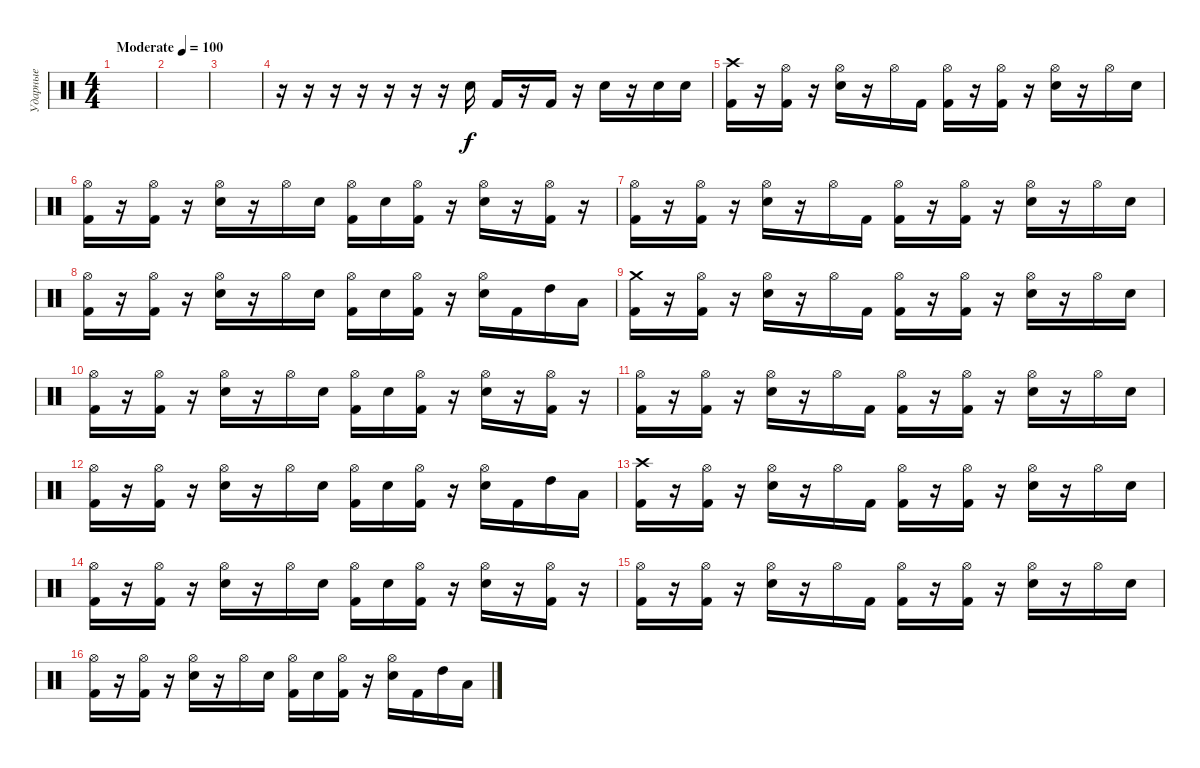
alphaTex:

\track ("Ударные" "Ударные") {instrument percussion}
\staff {score}
\articulation defaults
\ts (4 4)
\tempo (100 "Moderate")
\clef neutral
\ks c
|
|
|
r.16 r.16 r.16 r.16 r.16 r.16 r.16 "Snare (hit) 2".16 "Kick (hit) 2".16 r.16 "Kick (hit) 2".16 r.16 "Snare (hit) 2".16 r.16 "Snare (hit) 2".16 "Snare (hit) 2".16 |
("Crash high (hit)" "Kick (hit) 2").16 r.16 ("Hi-Hat (open)" "Kick (hit) 2").16 r.16 ("Hi-Hat (open)" "Snare (hit) 2").16 r.16 "Hi-Hat (open)".16 "Kick (hit) 2".16 ("Hi-Hat (open)" "Kick (hit) 2").16 r.16 ("Hi-Hat (open)" "Kick (hit) 2").16 r.16 ("Hi-Hat (open)" "Snare (hit) 2").16 r.16 "Hi-Hat (open)".16 "Snare (hit) 2".16 |
("Hi-Hat (open)" "Kick (hit) 2").16 r.16 ("Hi-Hat (open)" "Kick (hit) 2").16 r.16 ("Hi-Hat (open)" "Snare (hit) 2").16 r.16 "Hi-Hat (open)".16 "Snare (hit) 2".16 ("Hi-Hat (open)" "Kick (hit) 2").16 "Snare (hit) 2".16 ("Hi-Hat (open)" "Kick (hit) 2").16 r.16 ("Hi-Hat (open)" "Snare (hit) 2").16 r.16 ("Hi-Hat (open)" "Kick (hit) 2").16 r.16 |
("Hi-Hat (open)" "Kick (hit) 2").16 r.16 ("Hi-Hat (open)" "Kick (hit) 2").16 r.16 ("Hi-Hat (open)" "Snare (hit) 2").16 r.16 "Hi-Hat (open)".16 "Kick (hit) 2".16 ("Hi-Hat (open)" "Kick (hit) 2").16 r.16 ("Hi-Hat (open)" "Kick (hit) 2").16 r.16 ("Hi-Hat (open)" "Snare (hit) 2").16 r.16 "Hi-Hat (open)".16 "Snare (hit) 2".16 |
("Hi-Hat (open)" "Kick (hit) 2").16 r.16 ("Hi-Hat (open)" "Kick (hit) 2").16 r.16 ("Hi-Hat (open)" "Snare (hit) 2").16 r.16 "Hi-Hat (open)".16 "Snare (hit) 2".16 ("Hi-Hat (open)" "Kick (hit) 2").16 "Snare (hit) 2".16 ("Hi-Hat (open)" "Kick (hit) 2").16 r.16 ("Hi-Hat (open)" "Snare (hit) 2").16 "Kick (hit) 2".16 "High Tom (hit)".16 "Low Tom (hit)".16 |
("Crash medium (hit)" "Kick (hit) 2").16 r.16 ("Hi-Hat (open)" "Kick (hit) 2").16 r.16 ("Hi-Hat (open)" "Snare (hit) 2").16 r.16 "Hi-Hat (open)".16 "Kick (hit) 2".16 ("Hi-Hat (open)" "Kick (hit) 2").16 r.16 ("Hi-Hat (open)" "Kick (hit) 2").16 r.16 ("Hi-Hat (open)" "Snare (hit) 2").16 r.16 "Hi-Hat (open)".16 "Snare (hit) 2".16 |
("Hi-Hat (open)" "Kick (hit) 2").16 r.16 ("Hi-Hat (open)" "Kick (hit) 2").16 r.16 ("Hi-Hat (open)" "Snare (hit) 2").16 r.16 "Hi-Hat (open)".16 "Snare (hit) 2".16 ("Hi-Hat (open)" "Kick (hit) 2").16 "Snare (hit) 2".16 ("Hi-Hat (open)" "Kick (hit) 2").16 r.16 ("Hi-Hat (open)" "Snare (hit) 2").16 r.16 ("Hi-Hat (open)" "Kick (hit) 2").16 r.16 |
("Hi-Hat (open)" "Kick (hit) 2").16 r.16 ("Hi-Hat (open)" "Kick (hit) 2").16 r.16 ("Hi-Hat (open)" "Snare (hit) 2").16 r.16 "Hi-Hat (open)".16 "Kick (hit) 2".16 ("Hi-Hat (open)" "Kick (hit) 2").16 r.16 ("Hi-Hat (open)" "Kick (hit) 2").16 r.16 ("Hi-Hat (open)" "Snare (hit) 2").16 r.16 "Hi-Hat (open)".16 "Snare (hit) 2".16 |
("Hi-Hat (open)" "Kick (hit) 2").16 r.16 ("Hi-Hat (open)" "Kick (hit) 2").16 r.16 ("Hi-Hat (open)" "Snare (hit) 2").16 r.16 "Hi-Hat (open)".16 "Snare (hit) 2".16 ("Hi-Hat (open)" "Kick (hit) 2").16 "Snare (hit) 2".16 ("Hi-Hat (open)" "Kick (hit) 2").16 r.16 ("Hi-Hat (open)" "Snare (hit) 2").16 "Kick (hit) 2".16 "High Tom (hit)".16 "Low Tom (hit)".16 |
("Crash high (hit)" "Kick (hit) 2").16 r.16 ("Hi-Hat (open)" "Kick (hit) 2").16 r.16 ("Hi-Hat (open)" "Snare (hit) 2").16 r.16 "Hi-Hat (open)".16 "Kick (hit) 2".16 ("Hi-Hat (open)" "Kick (hit) 2").16 r.16 ("Hi-Hat (open)" "Kick (hit) 2").16 r.16 ("Hi-Hat (open)" "Snare (hit) 2").16 r.16 "Hi-Hat (open)".16 "Snare (hit) 2".16 |
("Hi-Hat (open)" "Kick (hit) 2").16 r.16 ("Hi-Hat (open)" "Kick (hit) 2").16 r.16 ("Hi-Hat (open)" "Snare (hit) 2").16 r.16 "Hi-Hat (open)".16 "Snare (hit) 2".16 ("Hi-Hat (open)" "Kick (hit) 2").16 "Snare (hit) 2".16 ("Hi-Hat (open)" "Kick (hit) 2").16 r.16 ("Hi-Hat (open)" "Snare (hit) 2").16 r.16 ("Hi-Hat (open)" "Kick (hit) 2").16 r.16 |
("Hi-Hat (open)" "Kick (hit) 2").16 r.16 ("Hi-Hat (open)" "Kick (hit) 2").16 r.16 ("Hi-Hat (open)" "Snare (hit) 2").16 r.16 "Hi-Hat (open)".16 "Kick (hit) 2".16 ("Hi-Hat (open)" "Kick (hit) 2").16 r.16 ("Hi-Hat (open)" "Kick (hit) 2").16 r.16 ("Hi-Hat (open)" "Snare (hit) 2").16 r.16 "Hi-Hat (open)".16 "Snare (hit) 2".16 |
("Hi-Hat (open)" "Kick (hit) 2").16 r.16 ("Hi-Hat (open)" "Kick (hit) 2").16 r.16 ("Hi-Hat (open)" "Snare (hit) 2").16 r.16 "Hi-Hat (open)".16 "Snare (hit) 2".16 ("Hi-Hat (open)" "Kick (hit) 2").16 "Snare (hit) 2".16 ("Hi-Hat (open)" "Kick (hit) 2").16 r.16 ("Hi-Hat (open)" "Snare (hit) 2").16 "Kick (hit) 2".16 "High Tom (hit)".16 "Low Tom (hit)".16
